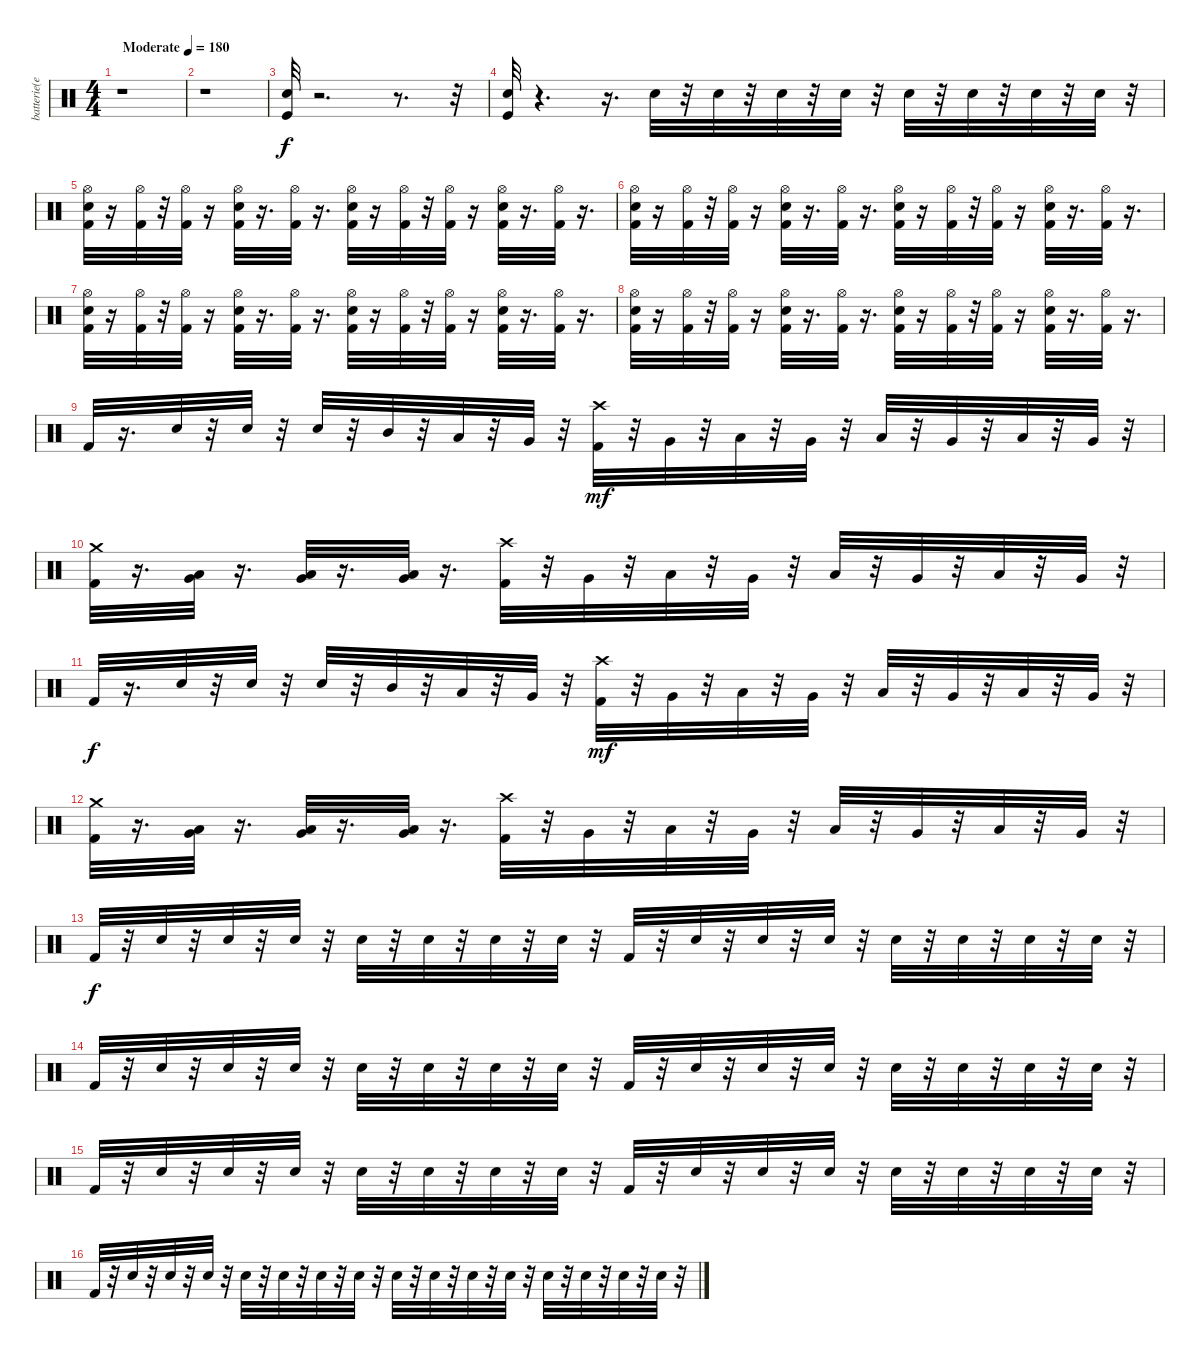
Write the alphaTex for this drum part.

\track ("batterie(eric)" "batterie(e") {instrument percussion}
\staff {score}
\articulation defaults
\ts (4 4)
\tempo (180 "Moderate")
\clef neutral
\ks c
r.1{dy f} |
r.1 |
("Snare (hit) 2" "Kick (hit)").32 r.2{d} r.8{d} r.32 |
("Snare (hit) 2" "Kick (hit)").32 r.4{d} r.16{d} "Electric Snare (hit)".32 r.32 "Electric Snare (hit)".32 r.32 "Electric Snare (hit)".32 r.32 "Electric Snare (hit)".32 r.32 "Electric Snare (hit)".32 r.32 "Electric Snare (hit)".32 r.32 "Electric Snare (hit)".32 r.32 "Electric Snare (hit)".32 r.32 |
("Kick (hit) 2" "Snare (hit) 2" "Hi-Hat (open)").32 r.16 ("Kick (hit) 2" "Hi-Hat (open)").32 r.32 ("Kick (hit) 2" "Hi-Hat (open)").32 r.16 ("Kick (hit) 2" "Snare (hit) 2" "Hi-Hat (open)").32 r.16{d} ("Kick (hit) 2" "Hi-Hat (open)").32 r.16{d} ("Kick (hit) 2" "Snare (hit) 2" "Hi-Hat (open)").32 r.16 ("Kick (hit) 2" "Hi-Hat (open)").32 r.32 ("Kick (hit) 2" "Hi-Hat (open)").32 r.16 ("Kick (hit) 2" "Snare (hit) 2" "Hi-Hat (open)").32 r.16{d} ("Kick (hit) 2" "Hi-Hat (open)").32 r.16{d} |
("Kick (hit) 2" "Snare (hit) 2" "Hi-Hat (open)").32 r.16 ("Kick (hit) 2" "Hi-Hat (open)").32 r.32 ("Kick (hit) 2" "Hi-Hat (open)").32 r.16 ("Kick (hit) 2" "Snare (hit) 2" "Hi-Hat (open)").32 r.16{d} ("Kick (hit) 2" "Hi-Hat (open)").32 r.16{d} ("Kick (hit) 2" "Snare (hit) 2" "Hi-Hat (open)").32 r.16 ("Kick (hit) 2" "Hi-Hat (open)").32 r.32 ("Kick (hit) 2" "Hi-Hat (open)").32 r.16 ("Kick (hit) 2" "Snare (hit) 2" "Hi-Hat (open)").32 r.16{d} ("Kick (hit) 2" "Hi-Hat (open)").32 r.16{d} |
("Kick (hit) 2" "Snare (hit) 2" "Hi-Hat (open)").32 r.16 ("Kick (hit) 2" "Hi-Hat (open)").32 r.32 ("Kick (hit) 2" "Hi-Hat (open)").32 r.16 ("Kick (hit) 2" "Snare (hit) 2" "Hi-Hat (open)").32 r.16{d} ("Kick (hit) 2" "Hi-Hat (open)").32 r.16{d} ("Kick (hit) 2" "Snare (hit) 2" "Hi-Hat (open)").32 r.16 ("Kick (hit) 2" "Hi-Hat (open)").32 r.32 ("Kick (hit) 2" "Hi-Hat (open)").32 r.16 ("Kick (hit) 2" "Snare (hit) 2" "Hi-Hat (open)").32 r.16{d} ("Kick (hit) 2" "Hi-Hat (open)").32 r.16{d} |
("Kick (hit) 2" "Snare (hit) 2" "Hi-Hat (open)").32 r.16 ("Kick (hit) 2" "Hi-Hat (open)").32 r.32 ("Kick (hit) 2" "Hi-Hat (open)").32 r.16 ("Kick (hit) 2" "Snare (hit) 2" "Hi-Hat (open)").32 r.16{d} ("Kick (hit) 2" "Hi-Hat (open)").32 r.16{d} ("Kick (hit) 2" "Snare (hit) 2" "Hi-Hat (open)").32 r.16 ("Kick (hit) 2" "Hi-Hat (open)").32 r.32 ("Kick (hit) 2" "Hi-Hat (open)").32 r.16 ("Kick (hit) 2" "Snare (hit) 2" "Hi-Hat (open)").32 r.16{d} ("Kick (hit) 2" "Hi-Hat (open)").32 r.16{d} |
"Kick (hit) 2".32 r.16{d} "Snare (hit) 2".32 r.32 "Snare (hit) 2".32 r.32 "Snare (hit) 2".32 r.32 "Mid Tom (hit)".32 r.32 "Low Tom (hit)".32 r.32 "Very Low Tom (hit)".32 r.32 ("Kick (hit) 2" "Crash high (hit)").32{dy mf} r.32 "Very Low Tom (hit)".32 r.32 "Low Floor Tom (hit)".32 r.32 "Very Low Tom (hit)".32 r.32 "Low Floor Tom (hit)".32 r.32 "Very Low Tom (hit)".32 r.32 "Low Floor Tom (hit)".32 r.32 "Very Low Tom (hit)".32 r.32 |
("Kick (hit) 2" "Crash medium (hit)").32 r.16{d} ("Low Floor Tom (hit)" "Very Low Tom (hit)").32 r.16{d} ("Low Floor Tom (hit)" "Very Low Tom (hit)").32 r.16{d} ("Low Floor Tom (hit)" "Very Low Tom (hit)").32 r.16{d} ("Kick (hit) 2" "Crash high (hit)").32 r.32 "Very Low Tom (hit)".32 r.32 "Low Floor Tom (hit)".32 r.32 "Very Low Tom (hit)".32 r.32 "Low Floor Tom (hit)".32 r.32 "Very Low Tom (hit)".32 r.32 "Low Floor Tom (hit)".32 r.32 "Very Low Tom (hit)".32 r.32 |
"Kick (hit) 2".32{dy f} r.16{d} "Snare (hit) 2".32 r.32 "Snare (hit) 2".32 r.32 "Snare (hit) 2".32 r.32 "Mid Tom (hit)".32 r.32 "Low Tom (hit)".32 r.32 "Very Low Tom (hit)".32 r.32 ("Kick (hit) 2" "Crash high (hit)").32{dy mf} r.32 "Very Low Tom (hit)".32 r.32 "Low Floor Tom (hit)".32 r.32 "Very Low Tom (hit)".32 r.32 "Low Floor Tom (hit)".32 r.32 "Very Low Tom (hit)".32 r.32 "Low Floor Tom (hit)".32 r.32 "Very Low Tom (hit)".32 r.32 |
("Kick (hit) 2" "Crash medium (hit)").32 r.16{d} ("Low Floor Tom (hit)" "Very Low Tom (hit)").32 r.16{d} ("Low Floor Tom (hit)" "Very Low Tom (hit)").32 r.16{d} ("Low Floor Tom (hit)" "Very Low Tom (hit)").32 r.16{d} ("Kick (hit) 2" "Crash high (hit)").32 r.32 "Very Low Tom (hit)".32 r.32 "Low Floor Tom (hit)".32 r.32 "Very Low Tom (hit)".32 r.32 "Low Floor Tom (hit)".32 r.32 "Very Low Tom (hit)".32 r.32 "Low Floor Tom (hit)".32 r.32 "Very Low Tom (hit)".32 r.32 |
"Kick (hit) 2".32{dy f} r.32 "Snare (hit) 2".32 r.32 "Snare (hit) 2".32 r.32 "Snare (hit) 2".32 r.32 "Snare (hit) 2".32 r.32 "Snare (hit) 2".32 r.32 "Snare (hit) 2".32 r.32 "Snare (hit) 2".32 r.32 "Kick (hit) 2".32 r.32 "Snare (hit) 2".32 r.32 "Snare (hit) 2".32 r.32 "Snare (hit) 2".32 r.32 "Snare (hit) 2".32 r.32 "Snare (hit) 2".32 r.32 "Snare (hit) 2".32 r.32 "Snare (hit) 2".32 r.32 |
"Kick (hit) 2".32 r.32 "Snare (hit) 2".32 r.32 "Snare (hit) 2".32 r.32 "Snare (hit) 2".32 r.32 "Snare (hit) 2".32 r.32 "Snare (hit) 2".32 r.32 "Snare (hit) 2".32 r.32 "Snare (hit) 2".32 r.32 "Kick (hit) 2".32 r.32 "Snare (hit) 2".32 r.32 "Snare (hit) 2".32 r.32 "Snare (hit) 2".32 r.32 "Snare (hit) 2".32 r.32 "Snare (hit) 2".32 r.32 "Snare (hit) 2".32 r.32 "Snare (hit) 2".32 r.32 |
"Kick (hit) 2".32 r.32 "Snare (hit) 2".32 r.32 "Snare (hit) 2".32 r.32 "Snare (hit) 2".32 r.32 "Snare (hit) 2".32 r.32 "Snare (hit) 2".32 r.32 "Snare (hit) 2".32 r.32 "Snare (hit) 2".32 r.32 "Kick (hit) 2".32 r.32 "Snare (hit) 2".32 r.32 "Snare (hit) 2".32 r.32 "Snare (hit) 2".32 r.32 "Snare (hit) 2".32 r.32 "Snare (hit) 2".32 r.32 "Snare (hit) 2".32 r.32 "Snare (hit) 2".32 r.32 |
"Kick (hit) 2".32 r.32 "Snare (hit) 2".32 r.32 "Snare (hit) 2".32 r.32 "Snare (hit) 2".32 r.32 "Snare (hit) 2".32 r.32 "Snare (hit) 2".32 r.32 "Snare (hit) 2".32 r.32 "Snare (hit) 2".32 r.32 "Snare (hit) 2".32 r.32 "Snare (hit) 2".32 r.32 "Snare (hit) 2".32 r.32 "Snare (hit) 2".32 r.32 "Snare (hit) 2".32 r.32 "Snare (hit) 2".32 r.32 "Snare (hit) 2".32 r.32 "Snare (hit) 2".32 r.32
